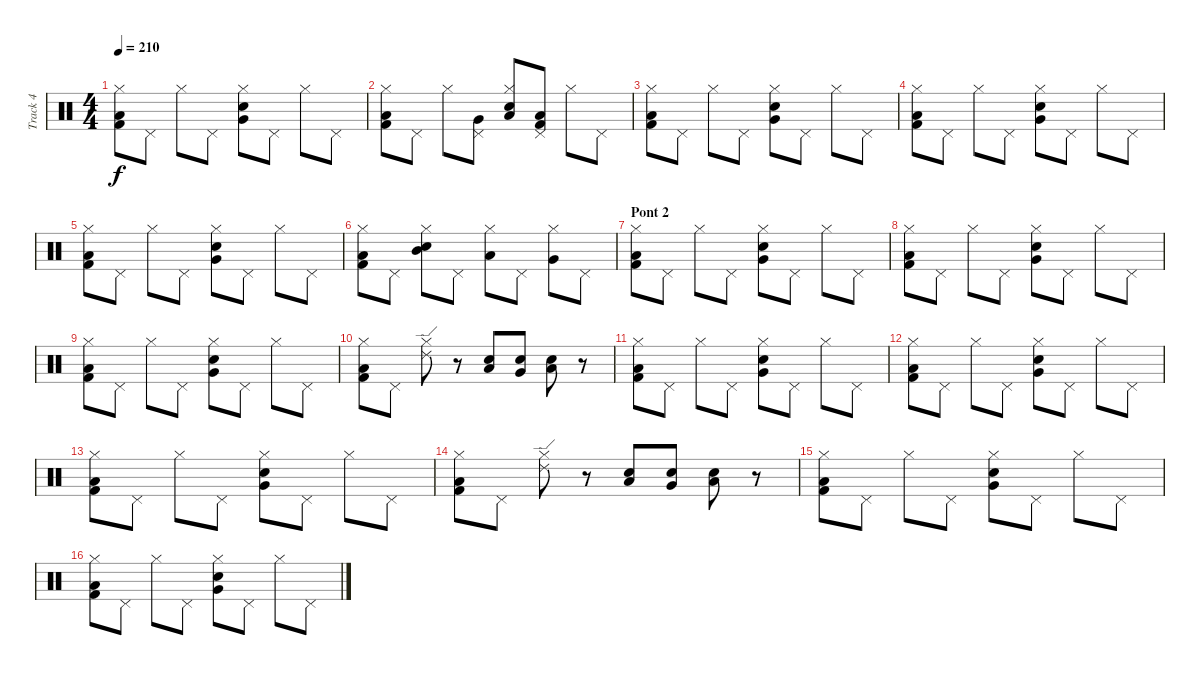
\track ("Track 4" "Track 4") {instrument percussion}
\staff {score}
\articulation defaults
\ts (4 4)
\tempo 210
\clef neutral
\ks c
("Kick (hit) 2" "Low Tom (hit)" "Hi-Hat (closed)").8{dy f} "Pedal Hi-Hat (hit)".8 "Hi-Hat (closed)".8 "Pedal Hi-Hat (hit)".8 ("Electric Snare (hit)" "Very Low Tom (hit)" "Hi-Hat (closed)").8 "Pedal Hi-Hat (hit)".8 "Hi-Hat (closed)".8 "Pedal Hi-Hat (hit)".8 |
("Kick (hit) 2" "Low Tom (hit)" "Hi-Hat (closed)").8 "Pedal Hi-Hat (hit)".8 "Hi-Hat (closed)".8 ("Pedal Hi-Hat (hit)" "Very Low Tom (hit)").8 ("Snare (hit) 2" "Low Tom (hit)" "Hi-Hat (closed)").8 ("Pedal Hi-Hat (hit)" "Low Floor Tom (hit)" "Kick (hit) 2").8 "Hi-Hat (closed)".8 "Pedal Hi-Hat (hit)".8 |
("Kick (hit) 2" "Low Tom (hit)" "Hi-Hat (closed)").8 "Pedal Hi-Hat (hit)".8 "Hi-Hat (closed)".8 "Pedal Hi-Hat (hit)".8 ("Electric Snare (hit)" "Very Low Tom (hit)" "Hi-Hat (closed)").8 "Pedal Hi-Hat (hit)".8 "Hi-Hat (closed)".8 "Pedal Hi-Hat (hit)".8 |
("Kick (hit) 2" "Low Tom (hit)" "Hi-Hat (closed)").8 "Pedal Hi-Hat (hit)".8 "Hi-Hat (closed)".8 "Pedal Hi-Hat (hit)".8 ("Electric Snare (hit)" "Very Low Tom (hit)" "Hi-Hat (closed)").8 "Pedal Hi-Hat (hit)".8 "Hi-Hat (closed)".8 "Pedal Hi-Hat (hit)".8 |
("Kick (hit) 2" "Low Tom (hit)" "Hi-Hat (closed)").8 "Pedal Hi-Hat (hit)".8 "Hi-Hat (closed)".8 "Pedal Hi-Hat (hit)".8 ("Electric Snare (hit)" "Very Low Tom (hit)" "Hi-Hat (closed)").8 "Pedal Hi-Hat (hit)".8 "Hi-Hat (closed)".8 "Pedal Hi-Hat (hit)".8 |
("Kick (hit) 2" "Low Tom (hit)" "Hi-Hat (closed)").8 "Pedal Hi-Hat (hit)".8 ("Hi-Hat (closed)" "Mid Tom (hit)" "Electric Snare (hit)").8 "Pedal Hi-Hat (hit)".8 ("Hi-Hat (closed)" "Low Tom (hit)").8 "Pedal Hi-Hat (hit)".8 ("Hi-Hat (closed)" "Very Low Tom (hit)").8 "Pedal Hi-Hat (hit)".8 |
\section ("" "Pont 2")
("Kick (hit) 2" "Low Tom (hit)" "Hi-Hat (closed)").8 "Pedal Hi-Hat (hit)".8 "Hi-Hat (closed)".8 "Pedal Hi-Hat (hit)".8 ("Electric Snare (hit)" "Very Low Tom (hit)" "Hi-Hat (closed)").8 "Pedal Hi-Hat (hit)".8 "Hi-Hat (closed)".8 "Pedal Hi-Hat (hit)".8 |
("Kick (hit) 2" "Low Tom (hit)" "Hi-Hat (closed)").8 "Pedal Hi-Hat (hit)".8 "Hi-Hat (closed)".8 "Pedal Hi-Hat (hit)".8 ("Electric Snare (hit)" "Very Low Tom (hit)" "Hi-Hat (closed)").8 "Pedal Hi-Hat (hit)".8 "Hi-Hat (closed)".8 "Pedal Hi-Hat (hit)".8 |
("Kick (hit) 2" "Low Tom (hit)" "Hi-Hat (closed)").8 "Pedal Hi-Hat (hit)".8 "Hi-Hat (closed)".8 "Pedal Hi-Hat (hit)".8 ("Electric Snare (hit)" "Very Low Tom (hit)" "Hi-Hat (closed)").8 "Pedal Hi-Hat (hit)".8 "Hi-Hat (closed)".8 "Pedal Hi-Hat (hit)".8 |
("Kick (hit) 2" "Low Tom (hit)" "Hi-Hat (closed)").8 "Pedal Hi-Hat (hit)".8 ("Hi-Hat (closed)" "Ride (edge) 2").8 r.8 ("Electric Snare (hit)" "Low Tom (hit)").8 ("Electric Snare (hit)" "Very Low Tom (hit)").8 ("Electric Snare (hit)" "Low Floor Tom (hit)").8 r.8 |
("Kick (hit) 2" "Low Tom (hit)" "Hi-Hat (closed)").8 "Pedal Hi-Hat (hit)".8 "Hi-Hat (closed)".8 "Pedal Hi-Hat (hit)".8 ("Electric Snare (hit)" "Very Low Tom (hit)" "Hi-Hat (closed)").8 "Pedal Hi-Hat (hit)".8 "Hi-Hat (closed)".8 "Pedal Hi-Hat (hit)".8 |
("Kick (hit) 2" "Low Tom (hit)" "Hi-Hat (closed)").8 "Pedal Hi-Hat (hit)".8 "Hi-Hat (closed)".8 "Pedal Hi-Hat (hit)".8 ("Electric Snare (hit)" "Very Low Tom (hit)" "Hi-Hat (closed)").8 "Pedal Hi-Hat (hit)".8 "Hi-Hat (closed)".8 "Pedal Hi-Hat (hit)".8 |
("Kick (hit) 2" "Low Tom (hit)" "Hi-Hat (closed)").8 "Pedal Hi-Hat (hit)".8 "Hi-Hat (closed)".8 "Pedal Hi-Hat (hit)".8 ("Electric Snare (hit)" "Very Low Tom (hit)" "Hi-Hat (closed)").8 "Pedal Hi-Hat (hit)".8 "Hi-Hat (closed)".8 "Pedal Hi-Hat (hit)".8 |
("Kick (hit) 2" "Low Tom (hit)" "Hi-Hat (closed)").8 "Pedal Hi-Hat (hit)".8 ("Hi-Hat (closed)" "Ride (edge) 2").8 r.8 ("Electric Snare (hit)" "Low Tom (hit)").8 ("Electric Snare (hit)" "Very Low Tom (hit)").8 ("Electric Snare (hit)" "Low Floor Tom (hit)").8 r.8 |
("Kick (hit) 2" "Low Tom (hit)" "Hi-Hat (closed)").8 "Pedal Hi-Hat (hit)".8 "Hi-Hat (closed)".8 "Pedal Hi-Hat (hit)".8 ("Electric Snare (hit)" "Very Low Tom (hit)" "Hi-Hat (closed)").8 "Pedal Hi-Hat (hit)".8 "Hi-Hat (closed)".8 "Pedal Hi-Hat (hit)".8 |
("Kick (hit) 2" "Low Tom (hit)" "Hi-Hat (closed)").8 "Pedal Hi-Hat (hit)".8 "Hi-Hat (closed)".8 "Pedal Hi-Hat (hit)".8 ("Electric Snare (hit)" "Very Low Tom (hit)" "Hi-Hat (closed)").8 "Pedal Hi-Hat (hit)".8 "Hi-Hat (closed)".8 "Pedal Hi-Hat (hit)".8
